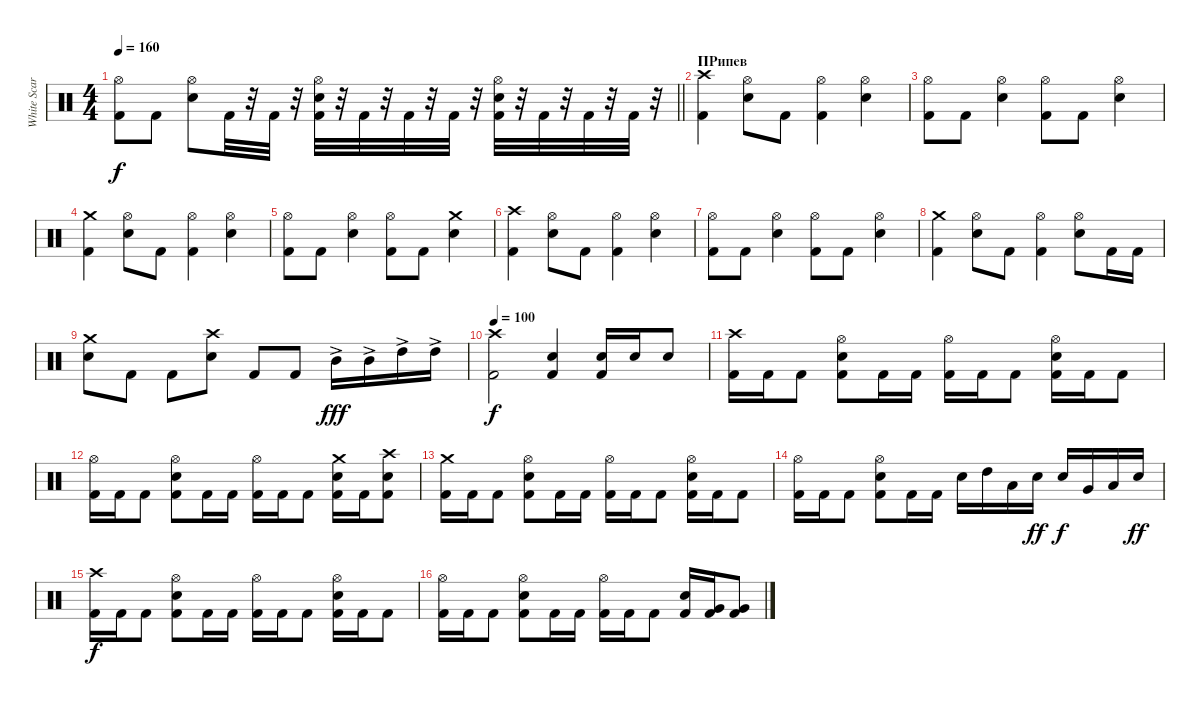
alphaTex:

\track ("White Scar" "White Scar") {instrument percussion}
\staff {score}
\articulation defaults
\ts (4 4)
\tempo 160
\clef neutral
\barLineRight lightlight
\ks c
("Hi-Hat (open)" "Kick (hit) 2").8{dy f} "Kick (hit) 2".8 ("Hi-Hat (open)" "Snare (hit) 2").8 "Kick (hit) 2".32 r.32 "Kick (hit) 2".32 r.32 ("Hi-Hat (open)" "Snare (hit) 2" "Kick (hit) 2").32 r.32 "Kick (hit) 2".32 r.32 "Kick (hit) 2".32 r.32 "Kick (hit) 2".32 r.32 ("Hi-Hat (open)" "Snare (hit) 2" "Kick (hit) 2").32 r.32 "Kick (hit) 2".32 r.32 "Kick (hit) 2".32 r.32 "Kick (hit) 2".32 r.32 |
\section ("" "ПРипев")
("Crash high (hit)" "Kick (hit) 2").4 ("Hi-Hat (open)" "Snare (hit) 2").8 "Kick (hit) 2".8 ("Hi-Hat (open)" "Kick (hit) 2").4 ("Hi-Hat (open)" "Snare (hit) 2").4 |
("Hi-Hat (open)" "Kick (hit) 2").8 "Kick (hit) 2".8 ("Hi-Hat (open)" "Snare (hit) 2").4 ("Hi-Hat (open)" "Kick (hit) 2").8 "Kick (hit) 2".8 ("Hi-Hat (open)" "Snare (hit) 2").4 |
("Crash medium (hit)" "Kick (hit) 2").4 ("Hi-Hat (open)" "Snare (hit) 2").8 "Kick (hit) 2".8 ("Hi-Hat (open)" "Kick (hit) 2").4 ("Hi-Hat (open)" "Snare (hit) 2").4 |
("Hi-Hat (open)" "Kick (hit) 2").8 "Kick (hit) 2".8 ("Hi-Hat (open)" "Snare (hit) 2").4 ("Hi-Hat (open)" "Kick (hit) 2").8 "Kick (hit) 2".8 ("Crash medium (hit)" "Snare (hit) 2").4 |
("Crash high (hit)" "Kick (hit) 2").4 ("Hi-Hat (open)" "Snare (hit) 2").8 "Kick (hit) 2".8 ("Hi-Hat (open)" "Kick (hit) 2").4 ("Hi-Hat (open)" "Snare (hit) 2").4 |
("Hi-Hat (open)" "Kick (hit) 2").8 "Kick (hit) 2".8 ("Hi-Hat (open)" "Snare (hit) 2").4 ("Hi-Hat (open)" "Kick (hit) 2").8 "Kick (hit) 2".8 ("Hi-Hat (open)" "Snare (hit) 2").4 |
("Crash medium (hit)" "Kick (hit) 2").4 ("Hi-Hat (open)" "Snare (hit) 2").8 "Kick (hit) 2".8 ("Hi-Hat (open)" "Kick (hit) 2").4 ("Hi-Hat (open)" "Snare (hit) 2").8 "Kick (hit) 2".16 "Kick (hit) 2".16 |
("Crash medium (hit)" "Snare (hit) 2").8 "Kick (hit) 2".8 "Kick (hit) 2".8 ("Crash high (hit)" "Snare (hit) 2").8 "Kick (hit) 2".8 "Kick (hit) 2".8 "Mid Tom (hit)"{ac}.16{dy fff} "Mid Tom (hit)"{ac}.16 "High Tom (hit)"{ac}.16 "High Tom (hit)"{ac}.16 |
\tempo 100
("Crash high (hit)" "Kick (hit) 2").2{dy f} ("Snare (hit) 2" "Kick (hit) 2").4 ("Snare (hit) 2" "Kick (hit) 2").16 "Snare (hit) 2".16 "Snare (hit) 2".8 |
("Crash high (hit)" "Kick (hit) 2").16 "Kick (hit) 2".16 "Kick (hit) 2".8 ("Hi-Hat (open)" "Snare (hit) 2" "Kick (hit) 2").8 "Kick (hit) 2".16 "Kick (hit) 2".16 ("Hi-Hat (open)" "Kick (hit) 2").16 "Kick (hit) 2".16 "Kick (hit) 2".8 ("Hi-Hat (open)" "Snare (hit) 2" "Kick (hit) 2").16 "Kick (hit) 2".16 "Kick (hit) 2".8 |
("Hi-Hat (open)" "Kick (hit) 2").16 "Kick (hit) 2".16 "Kick (hit) 2".8 ("Hi-Hat (open)" "Snare (hit) 2" "Kick (hit) 2").8 "Kick (hit) 2".16 "Kick (hit) 2".16 ("Hi-Hat (open)" "Kick (hit) 2").16 "Kick (hit) 2".16 "Kick (hit) 2".8 ("Crash medium (hit)" "Snare (hit) 2" "Kick (hit) 2").16 "Kick (hit) 2".16 ("Crash high (hit)" "Snare (hit) 2" "Kick (hit) 2").8 |
("Crash medium (hit)" "Kick (hit) 2").16 "Kick (hit) 2".16 "Kick (hit) 2".8 ("Hi-Hat (open)" "Snare (hit) 2" "Kick (hit) 2").8 "Kick (hit) 2".16 "Kick (hit) 2".16 ("Hi-Hat (open)" "Kick (hit) 2").16 "Kick (hit) 2".16 "Kick (hit) 2".8 ("Hi-Hat (open)" "Snare (hit) 2" "Kick (hit) 2").16 "Kick (hit) 2".16 "Kick (hit) 2".8 |
("Hi-Hat (open)" "Kick (hit) 2").16 "Kick (hit) 2".16 "Kick (hit) 2".8 ("Hi-Hat (open)" "Snare (hit) 2" "Kick (hit) 2").8 "Kick (hit) 2".16 "Kick (hit) 2".16 "Snare (hit) 2".16 "High Tom (hit)".16 "Low Tom (hit)".16 "Snare (hit) 2".16{dy ff} "Snare (hit) 2".16{dy f} "Very Low Tom (hit)".16 "Low Floor Tom (hit)".16 "Snare (hit) 2".16{dy ff} |
("Crash high (hit)" "Kick (hit) 2").16{dy f} "Kick (hit) 2".16 "Kick (hit) 2".8 ("Hi-Hat (open)" "Snare (hit) 2" "Kick (hit) 2").8 "Kick (hit) 2".16 "Kick (hit) 2".16 ("Hi-Hat (open)" "Kick (hit) 2").16 "Kick (hit) 2".16 "Kick (hit) 2".8 ("Hi-Hat (open)" "Snare (hit) 2" "Kick (hit) 2").16 "Kick (hit) 2".16 "Kick (hit) 2".8 |
("Hi-Hat (open)" "Kick (hit) 2").16 "Kick (hit) 2".16 "Kick (hit) 2".8 ("Hi-Hat (open)" "Snare (hit) 2" "Kick (hit) 2").8 "Kick (hit) 2".16 "Kick (hit) 2".16 ("Hi-Hat (open)" "Kick (hit) 2").16 "Kick (hit) 2".16 "Kick (hit) 2".8 ("Snare (hit) 2" "Kick (hit) 2").16 ("Very Low Tom (hit)" "Kick (hit) 2").16 ("Very Low Tom (hit)" "Kick (hit) 2").8
